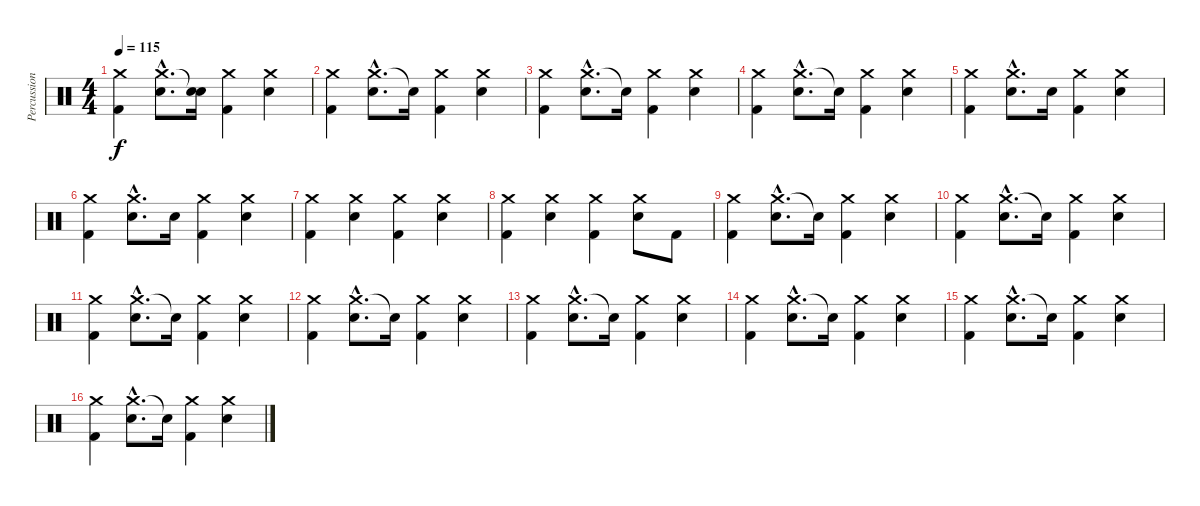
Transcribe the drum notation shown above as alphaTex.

\track ("Percussions" "Percussion") {instrument percussion}
\staff {score}
\articulation defaults
\ts (4 4)
\tempo 115
\clef neutral
\ks c
("Crash medium (hit)" "Kick (hit) 2").4{dy f} ("Crash medium (hit)"{hac} "Electric Snare (hit)"{hac}).8{d} ("Snare (hit)"{t} "Electric Snare (hit)").16 ("Crash medium (hit)" "Kick (hit) 2").4 ("Crash medium (hit)" "Electric Snare (hit)").4 |
("Crash medium (hit)" "Kick (hit) 2").4 ("Crash medium (hit)"{hac} "Electric Snare (hit)"{hac}).8{d} "Electric Snare (hit)"{t}.16 ("Crash medium (hit)" "Kick (hit) 2").4 ("Crash medium (hit)" "Electric Snare (hit)").4 |
("Crash medium (hit)" "Kick (hit) 2").4 ("Crash medium (hit)"{hac} "Electric Snare (hit)"{hac}).8{d} "Electric Snare (hit)"{t}.16 ("Crash medium (hit)" "Kick (hit) 2").4 ("Crash medium (hit)" "Electric Snare (hit)").4 |
("Crash medium (hit)" "Kick (hit) 2").4 ("Crash medium (hit)"{hac} "Electric Snare (hit)"{hac}).8{d} "Electric Snare (hit)"{t}.16 ("Crash medium (hit)" "Kick (hit) 2").4 ("Crash medium (hit)" "Electric Snare (hit)").4 |
("Crash medium (hit)" "Kick (hit) 2").4 ("Crash medium (hit)"{hac} "Electric Snare (hit)"{hac}).8{d} "Electric Snare (hit)".16 ("Crash medium (hit)" "Kick (hit) 2").4 ("Crash medium (hit)" "Electric Snare (hit)").4 |
("Crash medium (hit)" "Kick (hit) 2").4 ("Crash medium (hit)"{hac} "Electric Snare (hit)"{hac}).8{d} "Electric Snare (hit)".16 ("Crash medium (hit)" "Kick (hit) 2").4 ("Crash medium (hit)" "Electric Snare (hit)").4 |
("Crash medium (hit)" "Kick (hit) 2").4 ("Crash medium (hit)" "Electric Snare (hit)").4 ("Crash medium (hit)" "Kick (hit) 2").4 ("Crash medium (hit)" "Electric Snare (hit)").4 |
("Crash medium (hit)" "Kick (hit) 2").4 ("Crash medium (hit)" "Electric Snare (hit)").4 ("Crash medium (hit)" "Kick (hit) 2").4 ("Crash medium (hit)" "Electric Snare (hit)").8 "Kick (hit) 2".8 |
("Crash medium (hit)" "Kick (hit) 2").4 ("Crash medium (hit)"{hac} "Electric Snare (hit)"{hac}).8{d} "Electric Snare (hit)"{t}.16 ("Crash medium (hit)" "Kick (hit) 2").4 ("Crash medium (hit)" "Electric Snare (hit)").4 |
("Crash medium (hit)" "Kick (hit) 2").4 ("Crash medium (hit)"{hac} "Electric Snare (hit)"{hac}).8{d} "Electric Snare (hit)"{t}.16 ("Crash medium (hit)" "Kick (hit) 2").4 ("Crash medium (hit)" "Electric Snare (hit)").4 |
("Crash medium (hit)" "Kick (hit) 2").4 ("Crash medium (hit)"{hac} "Electric Snare (hit)"{hac}).8{d} "Electric Snare (hit)"{t}.16 ("Crash medium (hit)" "Kick (hit) 2").4 ("Crash medium (hit)" "Electric Snare (hit)").4 |
("Crash medium (hit)" "Kick (hit) 2").4 ("Crash medium (hit)"{hac} "Electric Snare (hit)"{hac}).8{d} "Electric Snare (hit)"{t}.16 ("Crash medium (hit)" "Kick (hit) 2").4 ("Crash medium (hit)" "Electric Snare (hit)").4 |
("Crash medium (hit)" "Kick (hit) 2").4 ("Crash medium (hit)"{hac} "Electric Snare (hit)"{hac}).8{d} "Electric Snare (hit)"{t}.16 ("Crash medium (hit)" "Kick (hit) 2").4 ("Crash medium (hit)" "Electric Snare (hit)").4 |
("Crash medium (hit)" "Kick (hit) 2").4 ("Crash medium (hit)"{hac} "Electric Snare (hit)"{hac}).8{d} "Electric Snare (hit)"{t}.16 ("Crash medium (hit)" "Kick (hit) 2").4 ("Crash medium (hit)" "Electric Snare (hit)").4 |
("Crash medium (hit)" "Kick (hit) 2").4 ("Crash medium (hit)"{hac} "Electric Snare (hit)"{hac}).8{d} "Electric Snare (hit)"{t}.16 ("Crash medium (hit)" "Kick (hit) 2").4 ("Crash medium (hit)" "Electric Snare (hit)").4 |
("Crash medium (hit)" "Kick (hit) 2").4 ("Crash medium (hit)"{hac} "Electric Snare (hit)"{hac}).8{d} "Electric Snare (hit)"{t}.16 ("Crash medium (hit)" "Kick (hit) 2").4 ("Crash medium (hit)" "Electric Snare (hit)").4
